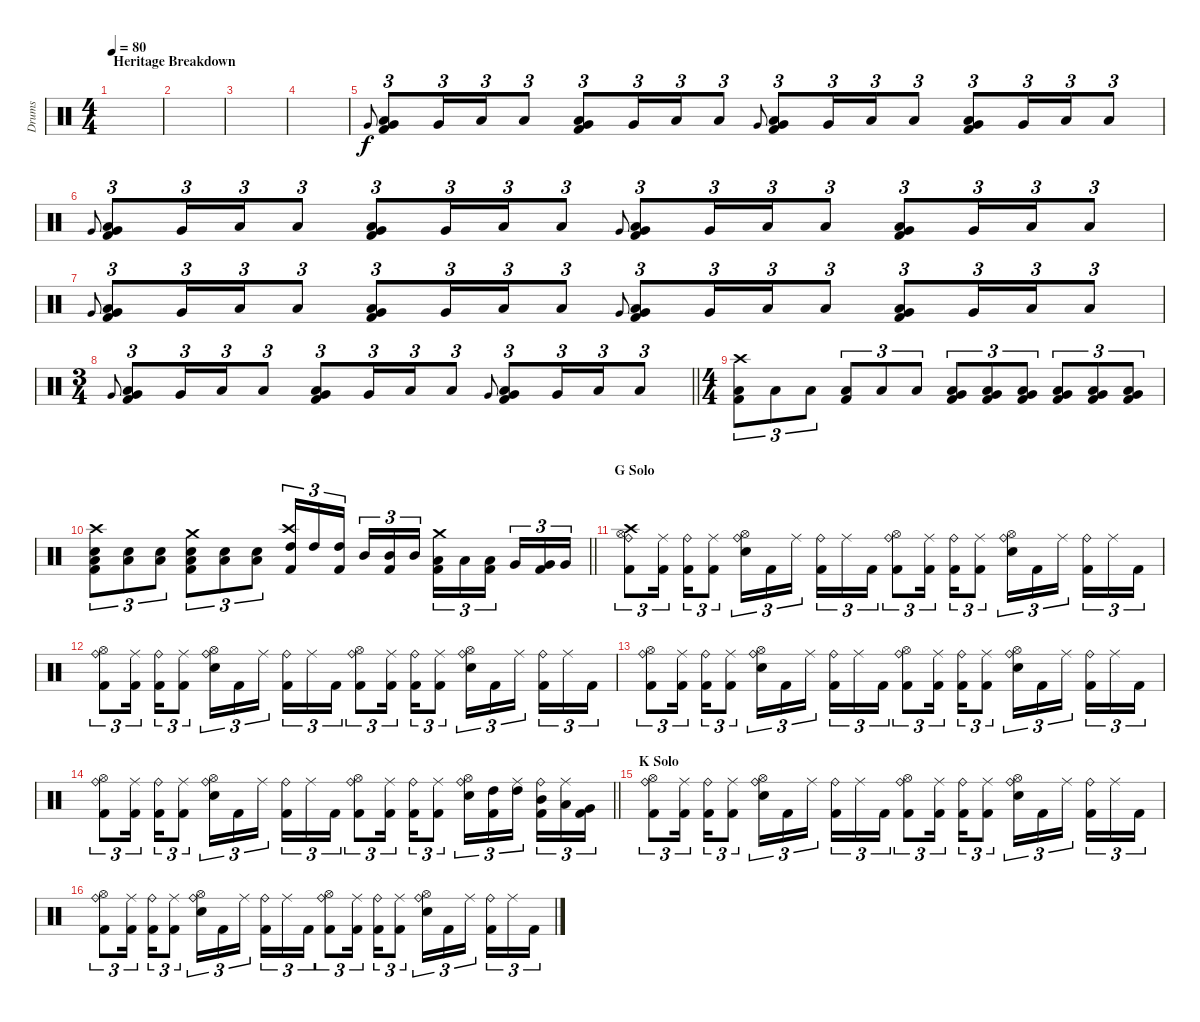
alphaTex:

\track ("Drums" "Drums") {instrument percussion}
\staff {score}
\articulation defaults
\ts (4 4)
\section ("" "Heritage Breakdown")
\tempo 80
\clef neutral
\ks c
|
|
|
|
"Very Low Tom (hit)".8{gr onbeat} ("Very Low Tom (hit)" "Low Floor Tom (hit)" "Kick (hit) 2").8{tu (3 2)} "Very Low Tom (hit)".16{tu (3 2)} "Low Floor Tom (hit)".16{tu (3 2)} "Low Floor Tom (hit)".8{tu (3 2)} ("Very Low Tom (hit)" "Low Tom (hit)" "Kick (hit) 2").8{tu (3 2)} "Very Low Tom (hit)".16{tu (3 2)} "Low Floor Tom (hit)".16{tu (3 2)} "Low Floor Tom (hit)".8{tu (3 2)} "Very Low Tom (hit)".8{gr onbeat} ("Very Low Tom (hit)" "Low Floor Tom (hit)" "Kick (hit) 2").8{tu (3 2)} "Very Low Tom (hit)".16{tu (3 2)} "Low Floor Tom (hit)".16{tu (3 2)} "Low Floor Tom (hit)".8{tu (3 2)} ("Very Low Tom (hit)" "Low Tom (hit)" "Kick (hit) 2").8{tu (3 2)} "Very Low Tom (hit)".16{tu (3 2)} "Low Floor Tom (hit)".16{tu (3 2)} "Low Floor Tom (hit)".8{tu (3 2)} |
"Very Low Tom (hit)".8{gr onbeat} ("Very Low Tom (hit)" "Low Floor Tom (hit)" "Kick (hit) 2").8{tu (3 2)} "Very Low Tom (hit)".16{tu (3 2)} "Low Floor Tom (hit)".16{tu (3 2)} "Low Floor Tom (hit)".8{tu (3 2)} ("Very Low Tom (hit)" "Low Tom (hit)" "Kick (hit) 2").8{tu (3 2)} "Very Low Tom (hit)".16{tu (3 2)} "Low Floor Tom (hit)".16{tu (3 2)} "Low Floor Tom (hit)".8{tu (3 2)} "Very Low Tom (hit)".8{gr onbeat} ("Very Low Tom (hit)" "Low Floor Tom (hit)" "Kick (hit) 2").8{tu (3 2)} "Very Low Tom (hit)".16{tu (3 2)} "Low Floor Tom (hit)".16{tu (3 2)} "Low Floor Tom (hit)".8{tu (3 2)} ("Very Low Tom (hit)" "Low Tom (hit)" "Kick (hit) 2").8{tu (3 2)} "Very Low Tom (hit)".16{tu (3 2)} "Low Floor Tom (hit)".16{tu (3 2)} "Low Floor Tom (hit)".8{tu (3 2)} |
"Very Low Tom (hit)".8{gr onbeat} ("Very Low Tom (hit)" "Low Floor Tom (hit)" "Kick (hit) 2").8{tu (3 2)} "Very Low Tom (hit)".16{tu (3 2)} "Low Floor Tom (hit)".16{tu (3 2)} "Low Floor Tom (hit)".8{tu (3 2)} ("Very Low Tom (hit)" "Low Tom (hit)" "Kick (hit) 2").8{tu (3 2)} "Very Low Tom (hit)".16{tu (3 2)} "Low Floor Tom (hit)".16{tu (3 2)} "Low Floor Tom (hit)".8{tu (3 2)} "Very Low Tom (hit)".8{gr onbeat} ("Very Low Tom (hit)" "Low Floor Tom (hit)" "Kick (hit) 2").8{tu (3 2)} "Very Low Tom (hit)".16{tu (3 2)} "Low Floor Tom (hit)".16{tu (3 2)} "Low Floor Tom (hit)".8{tu (3 2)} ("Very Low Tom (hit)" "Low Tom (hit)" "Kick (hit) 2").8{tu (3 2)} "Very Low Tom (hit)".16{tu (3 2)} "Low Floor Tom (hit)".16{tu (3 2)} "Low Floor Tom (hit)".8{tu (3 2)} |
\ts (3 4)
\barLineRight lightlight "Very Low Tom (hit)".8{gr onbeat}
("Very Low Tom (hit)" "Low Floor Tom (hit)" "Kick (hit) 2").8{tu (3 2)} "Very Low Tom (hit)".16{tu (3 2)} "Low Floor Tom (hit)".16{tu (3 2)} "Low Floor Tom (hit)".8{tu (3 2)} ("Very Low Tom (hit)" "Low Tom (hit)" "Kick (hit) 2").8{tu (3 2)} "Very Low Tom (hit)".16{tu (3 2)} "Low Floor Tom (hit)".16{tu (3 2)} "Low Floor Tom (hit)".8{tu (3 2)} "Very Low Tom (hit)".8{gr onbeat} ("Very Low Tom (hit)" "Low Floor Tom (hit)" "Kick (hit) 2").8{tu (3 2)} "Very Low Tom (hit)".16{tu (3 2)} "Low Floor Tom (hit)".16{tu (3 2)} "Low Floor Tom (hit)".8{tu (3 2)} |
\ts (4 4)
("Crash high (hit)" "Low Floor Tom (hit)" "Kick (hit) 2").8{tu (3 2)} "Low Floor Tom (hit)".8{tu (3 2)} "Low Floor Tom (hit)".8{tu (3 2)} ("Low Floor Tom (hit)" "Kick (hit) 2").8{tu (3 2)} "Low Floor Tom (hit)".8{tu (3 2)} "Low Floor Tom (hit)".8{tu (3 2)} ("Very Low Tom (hit)" "Low Floor Tom (hit)" "Kick (hit) 2").8{tu (3 2)} ("Very Low Tom (hit)" "Low Floor Tom (hit)" "Kick (hit) 2").8{tu (3 2)} ("Very Low Tom (hit)" "Low Floor Tom (hit)" "Kick (hit) 2").8{tu (3 2)} ("Very Low Tom (hit)" "Low Floor Tom (hit)" "Kick (hit) 2").8{tu (3 2)} ("Very Low Tom (hit)" "Low Floor Tom (hit)" "Kick (hit) 2").8{tu (3 2)} ("Very Low Tom (hit)" "Low Floor Tom (hit)" "Kick (hit) 2").8{tu (3 2)} |
\barLineRight lightlight
("Crash high (hit)" "Low Floor Tom (hit)" "Snare (hit) 2" "Kick (hit) 2").8{tu (3 2)} ("Low Floor Tom (hit)" "Snare (hit) 2").8{tu (3 2)} ("Low Floor Tom (hit)" "Snare (hit) 2").8{tu (3 2)} ("Crash medium (hit)" "Low Floor Tom (hit)" "Snare (hit) 2" "Kick (hit) 2").8{tu (3 2)} ("Low Floor Tom (hit)" "Snare (hit) 2").8{tu (3 2)} ("Low Floor Tom (hit)" "Snare (hit) 2").8{tu (3 2)} ("Crash high (hit)" "High Tom (hit)" "Kick (hit) 2").16{tu (3 2)} "High Tom (hit)".16{tu (3 2)} ("High Tom (hit)" "Kick (hit) 2").16{tu (3 2) beam splitsecondary} "Mid Tom (hit)".16{tu (3 2)} ("Mid Tom (hit)" "Kick (hit) 2").16{tu (3 2)} "Mid Tom (hit)".16{tu (3 2)} ("Crash medium (hit)" "Low Tom (hit)" "Kick (hit) 2").16{tu (3 2)} "Low Tom (hit)".16{tu (3 2)} ("Low Tom (hit)" "Kick (hit) 2").16{tu (3 2) beam splitsecondary} "Very Low Tom (hit)".16{tu (3 2)} ("Very Low Tom (hit)" "Kick (hit) 2").16{tu (3 2)} "Very Low Tom (hit)".16{tu (3 2)} |
\section ("" "G Solo")
("Crash high (hit)" "Ride (bell)" "Hi-Hat (open)" "Kick (hit) 2").8{tu (3 2)} ("Ride (middle)" "Kick (hit) 2").16{tu (3 2)} ("Ride (bell)" "Kick (hit) 2").16{tu (3 2)} ("Ride (middle)" "Kick (hit) 2").8{tu (3 2)} ("Ride (bell)" "Hi-Hat (open)" "Snare (hit) 2").16{tu (3 2)} "Kick (hit) 2".16{tu (3 2)} "Ride (middle)".16{tu (3 2) beam splitsecondary} ("Ride (bell)" "Kick (hit) 2").16{tu (3 2)} "Ride (middle)".16{tu (3 2)} "Kick (hit) 2".16{tu (3 2)} ("Ride (bell)" "Hi-Hat (open)" "Kick (hit) 2").8{tu (3 2)} ("Ride (middle)" "Kick (hit) 2").16{tu (3 2)} ("Ride (bell)" "Kick (hit) 2").16{tu (3 2)} ("Ride (middle)" "Kick (hit) 2").8{tu (3 2)} ("Ride (bell)" "Hi-Hat (open)" "Snare (hit) 2").16{tu (3 2)} "Kick (hit) 2".16{tu (3 2)} "Ride (middle)".16{tu (3 2) beam splitsecondary} ("Ride (bell)" "Kick (hit) 2").16{tu (3 2)} "Ride (middle)".16{tu (3 2)} "Kick (hit) 2".16{tu (3 2)} |
("Ride (bell)" "Hi-Hat (open)" "Kick (hit) 2").8{tu (3 2)} ("Ride (middle)" "Kick (hit) 2").16{tu (3 2)} ("Ride (bell)" "Kick (hit) 2").16{tu (3 2)} ("Ride (middle)" "Kick (hit) 2").8{tu (3 2)} ("Ride (bell)" "Hi-Hat (open)" "Snare (hit) 2").16{tu (3 2)} "Kick (hit) 2".16{tu (3 2)} "Ride (middle)".16{tu (3 2) beam splitsecondary} ("Ride (bell)" "Kick (hit) 2").16{tu (3 2)} "Ride (middle)".16{tu (3 2)} "Kick (hit) 2".16{tu (3 2)} ("Ride (bell)" "Hi-Hat (open)" "Kick (hit) 2").8{tu (3 2)} ("Ride (middle)" "Kick (hit) 2").16{tu (3 2)} ("Ride (bell)" "Kick (hit) 2").16{tu (3 2)} ("Ride (middle)" "Kick (hit) 2").8{tu (3 2)} ("Ride (bell)" "Hi-Hat (open)" "Snare (hit) 2").16{tu (3 2)} "Kick (hit) 2".16{tu (3 2)} "Ride (middle)".16{tu (3 2) beam splitsecondary} ("Ride (bell)" "Kick (hit) 2").16{tu (3 2)} "Ride (middle)".16{tu (3 2)} "Kick (hit) 2".16{tu (3 2)} |
("Ride (bell)" "Hi-Hat (open)" "Kick (hit) 2").8{tu (3 2)} ("Ride (middle)" "Kick (hit) 2").16{tu (3 2)} ("Ride (bell)" "Kick (hit) 2").16{tu (3 2)} ("Ride (middle)" "Kick (hit) 2").8{tu (3 2)} ("Ride (bell)" "Hi-Hat (open)" "Snare (hit) 2").16{tu (3 2)} "Kick (hit) 2".16{tu (3 2)} "Ride (middle)".16{tu (3 2) beam splitsecondary} ("Ride (bell)" "Kick (hit) 2").16{tu (3 2)} "Ride (middle)".16{tu (3 2)} "Kick (hit) 2".16{tu (3 2)} ("Ride (bell)" "Hi-Hat (open)" "Kick (hit) 2").8{tu (3 2)} ("Ride (middle)" "Kick (hit) 2").16{tu (3 2)} ("Ride (bell)" "Kick (hit) 2").16{tu (3 2)} ("Ride (middle)" "Kick (hit) 2").8{tu (3 2)} ("Ride (bell)" "Hi-Hat (open)" "Snare (hit) 2").16{tu (3 2)} "Kick (hit) 2".16{tu (3 2)} "Ride (middle)".16{tu (3 2) beam splitsecondary} ("Ride (bell)" "Kick (hit) 2").16{tu (3 2)} "Ride (middle)".16{tu (3 2)} "Kick (hit) 2".16{tu (3 2)} |
\barLineRight lightlight
("Ride (bell)" "Hi-Hat (open)" "Kick (hit) 2").8{tu (3 2)} ("Ride (middle)" "Kick (hit) 2").16{tu (3 2)} ("Ride (bell)" "Kick (hit) 2").16{tu (3 2)} ("Ride (middle)" "Kick (hit) 2").8{tu (3 2)} ("Ride (bell)" "Hi-Hat (open)" "Snare (hit) 2").16{tu (3 2)} "Kick (hit) 2".16{tu (3 2)} "Ride (middle)".16{tu (3 2) beam splitsecondary} ("Ride (bell)" "Kick (hit) 2").16{tu (3 2)} "Ride (middle)".16{tu (3 2)} "Kick (hit) 2".16{tu (3 2)} ("Ride (bell)" "Hi-Hat (open)" "Kick (hit) 2").8{tu (3 2)} ("Ride (middle)" "Kick (hit) 2").16{tu (3 2)} ("Ride (bell)" "Kick (hit) 2").16{tu (3 2)} ("Ride (middle)" "Kick (hit) 2").8{tu (3 2)} ("Ride (bell)" "Hi-Hat (open)" "Snare (hit) 2").16{tu (3 2)} ("High Tom (hit)" "Kick (hit) 2").16{tu (3 2)} ("Ride (middle)" "High Tom (hit)").16{tu (3 2) beam splitsecondary} ("Ride (bell)" "Mid Tom (hit)" "Kick (hit) 2").16{tu (3 2)} ("Ride (middle)" "Low Tom (hit)").16{tu (3 2)} ("Very Low Tom (hit)" "Kick (hit) 2").16{tu (3 2)} |
\section ("" "K Solo")
("Ride (bell)" "Hi-Hat (open)" "Kick (hit) 2").8{tu (3 2)} ("Ride (middle)" "Kick (hit) 2").16{tu (3 2)} ("Ride (bell)" "Kick (hit) 2").16{tu (3 2)} ("Ride (middle)" "Kick (hit) 2").8{tu (3 2)} ("Ride (bell)" "Hi-Hat (open)" "Snare (hit) 2").16{tu (3 2)} "Kick (hit) 2".16{tu (3 2)} "Ride (middle)".16{tu (3 2) beam splitsecondary} ("Ride (bell)" "Kick (hit) 2").16{tu (3 2)} "Ride (middle)".16{tu (3 2)} "Kick (hit) 2".16{tu (3 2)} ("Ride (bell)" "Hi-Hat (open)" "Kick (hit) 2").8{tu (3 2)} ("Ride (middle)" "Kick (hit) 2").16{tu (3 2)} ("Ride (bell)" "Kick (hit) 2").16{tu (3 2)} ("Ride (middle)" "Kick (hit) 2").8{tu (3 2)} ("Ride (bell)" "Hi-Hat (open)" "Snare (hit) 2").16{tu (3 2)} "Kick (hit) 2".16{tu (3 2)} "Ride (middle)".16{tu (3 2) beam splitsecondary} ("Ride (bell)" "Kick (hit) 2").16{tu (3 2)} "Ride (middle)".16{tu (3 2)} "Kick (hit) 2".16{tu (3 2)} |
("Ride (bell)" "Hi-Hat (open)" "Kick (hit) 2").8{tu (3 2)} ("Ride (middle)" "Kick (hit) 2").16{tu (3 2)} ("Ride (bell)" "Kick (hit) 2").16{tu (3 2)} ("Ride (middle)" "Kick (hit) 2").8{tu (3 2)} ("Ride (bell)" "Hi-Hat (open)" "Snare (hit) 2").16{tu (3 2)} "Kick (hit) 2".16{tu (3 2)} "Ride (middle)".16{tu (3 2) beam splitsecondary} ("Ride (bell)" "Kick (hit) 2").16{tu (3 2)} "Ride (middle)".16{tu (3 2)} "Kick (hit) 2".16{tu (3 2)} ("Ride (bell)" "Hi-Hat (open)" "Kick (hit) 2").8{tu (3 2)} ("Ride (middle)" "Kick (hit) 2").16{tu (3 2)} ("Ride (bell)" "Kick (hit) 2").16{tu (3 2)} ("Ride (middle)" "Kick (hit) 2").8{tu (3 2)} ("Ride (bell)" "Hi-Hat (open)" "Snare (hit) 2").16{tu (3 2)} "Kick (hit) 2".16{tu (3 2)} "Ride (middle)".16{tu (3 2) beam splitsecondary} ("Ride (bell)" "Kick (hit) 2").16{tu (3 2)} "Ride (middle)".16{tu (3 2)} "Kick (hit) 2".16{tu (3 2)}
